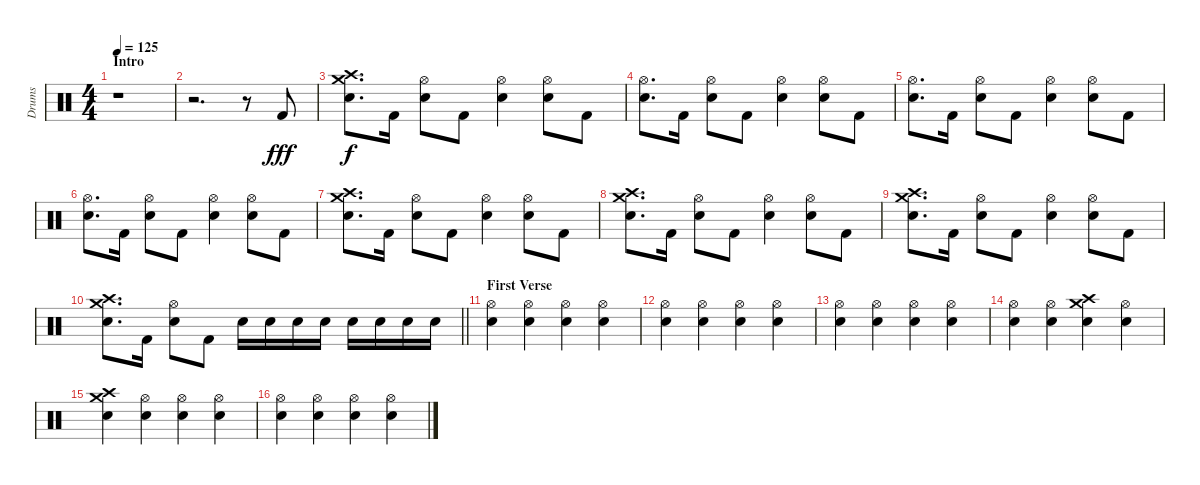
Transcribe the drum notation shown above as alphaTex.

\track ("Drums" "Drums") {instrument percussion}
\staff {score}
\articulation defaults
\ts (4 4)
\section ("" "Intro")
\tempo 125
\clef neutral
\ks c
r.1{dy fff} |
r.2{d} r.8 "Kick (hit) 2".8 |
("Crash high (hit)" "Crash medium (hit)" "Snare (hit) 2").8{d dy f} "Kick (hit) 2".16 ("Hi-Hat (open)" "Snare (hit) 2").8 "Kick (hit) 2".8 ("Hi-Hat (open)" "Snare (hit) 2").4 ("Hi-Hat (open)" "Snare (hit) 2").8 "Kick (hit) 2".8 |
("Hi-Hat (open)" "Snare (hit) 2").8{d} "Kick (hit) 2".16 ("Hi-Hat (open)" "Snare (hit) 2").8 "Kick (hit) 2".8 ("Hi-Hat (open)" "Snare (hit) 2").4 ("Hi-Hat (open)" "Snare (hit) 2").8 "Kick (hit) 2".8 |
("Hi-Hat (open)" "Snare (hit) 2").8{d} "Kick (hit) 2".16 ("Hi-Hat (open)" "Snare (hit) 2").8 "Kick (hit) 2".8 ("Hi-Hat (open)" "Snare (hit) 2").4 ("Hi-Hat (open)" "Snare (hit) 2").8 "Kick (hit) 2".8 |
("Hi-Hat (open)" "Snare (hit) 2").8{d} "Kick (hit) 2".16 ("Hi-Hat (open)" "Snare (hit) 2").8 "Kick (hit) 2".8 ("Hi-Hat (open)" "Snare (hit) 2").4 ("Hi-Hat (open)" "Snare (hit) 2").8 "Kick (hit) 2".8 |
("Crash high (hit)" "Crash medium (hit)" "Snare (hit) 2").8{d} "Kick (hit) 2".16 ("Hi-Hat (open)" "Snare (hit) 2").8 "Kick (hit) 2".8 ("Hi-Hat (open)" "Snare (hit) 2").4 ("Hi-Hat (open)" "Snare (hit) 2").8 "Kick (hit) 2".8 |
("Crash medium (hit)" "Crash high (hit)" "Snare (hit) 2").8{d} "Kick (hit) 2".16 ("Hi-Hat (open)" "Snare (hit) 2").8 "Kick (hit) 2".8 ("Hi-Hat (open)" "Snare (hit) 2").4 ("Hi-Hat (open)" "Snare (hit) 2").8 "Kick (hit) 2".8 |
("Crash high (hit)" "Crash medium (hit)" "Snare (hit) 2").8{d} "Kick (hit) 2".16 ("Hi-Hat (open)" "Snare (hit) 2").8 "Kick (hit) 2".8 ("Hi-Hat (open)" "Snare (hit) 2").4 ("Hi-Hat (open)" "Snare (hit) 2").8 "Kick (hit) 2".8 |
\barLineRight lightlight
("Crash medium (hit)" "Crash high (hit)" "Snare (hit) 2").8{d} "Kick (hit) 2".16 ("Hi-Hat (open)" "Snare (hit) 2").8 "Kick (hit) 2".8 "Snare (hit) 2".16 "Snare (hit) 2".16 "Snare (hit) 2".16 "Snare (hit) 2".16 "Snare (hit) 2".16 "Snare (hit) 2".16 "Snare (hit) 2".16 "Snare (hit) 2".16 |
\section ("" "First Verse")
("Hi-Hat (open)" "Snare (hit) 2").4 ("Hi-Hat (open)" "Snare (hit) 2").4 ("Hi-Hat (open)" "Snare (hit) 2").4 ("Hi-Hat (open)" "Snare (hit) 2").4 |
("Hi-Hat (open)" "Snare (hit) 2").4 ("Hi-Hat (open)" "Snare (hit) 2").4 ("Hi-Hat (open)" "Snare (hit) 2").4 ("Hi-Hat (open)" "Snare (hit) 2").4 |
("Hi-Hat (open)" "Snare (hit) 2").4 ("Hi-Hat (open)" "Snare (hit) 2").4 ("Hi-Hat (open)" "Snare (hit) 2").4 ("Hi-Hat (open)" "Snare (hit) 2").4 |
("Hi-Hat (open)" "Snare (hit) 2").4 ("Hi-Hat (open)" "Snare (hit) 2").4 ("Crash medium (hit)" "Crash high (hit)" "Snare (hit) 2").4 ("Hi-Hat (open)" "Snare (hit) 2").4 |
("Crash medium (hit)" "Crash high (hit)" "Snare (hit) 2").4 ("Hi-Hat (open)" "Snare (hit) 2").4 ("Hi-Hat (open)" "Snare (hit) 2").4 ("Hi-Hat (open)" "Snare (hit) 2").4 |
("Hi-Hat (open)" "Snare (hit) 2").4 ("Hi-Hat (open)" "Snare (hit) 2").4 ("Hi-Hat (open)" "Snare (hit) 2").4 ("Hi-Hat (open)" "Snare (hit) 2").4
